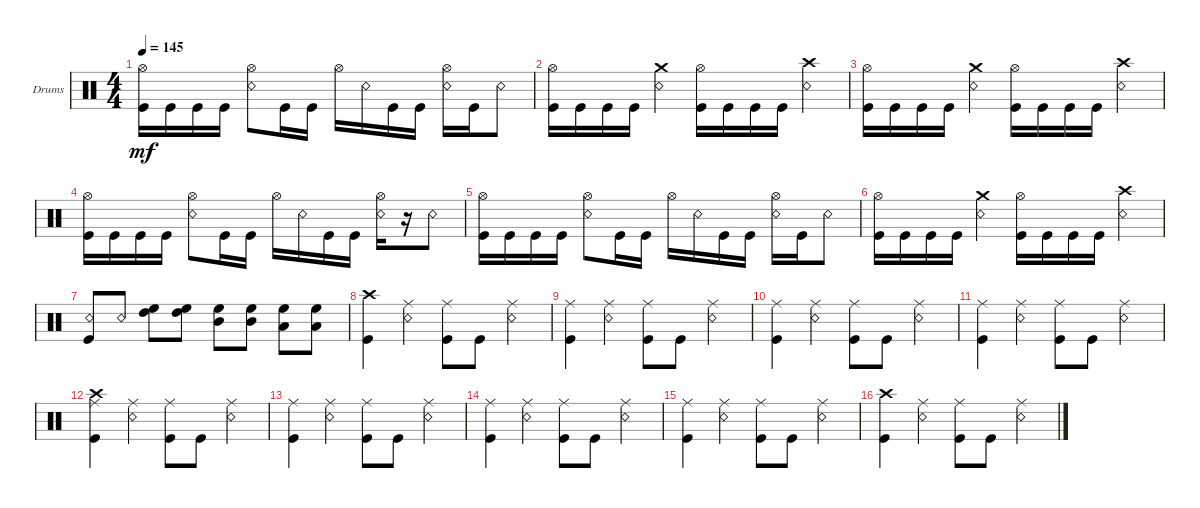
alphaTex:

\defaultSystemsLayout 4
\bracketExtendMode groupsimilarinstruments
\firstSystemTrackNameOrientation horizontal
\otherSystemsTrackNameOrientation horizontal
\track ("Drumkit" "Drums") {instrument percussion}
\staff {score}
\articulation defaults
\ts (4 4)
\tempo 145
\clef neutral
\ks c
("Kick (hit)" "Hi-Hat (open)").16{dy mf} "Kick (hit)".16 "Kick (hit)".16 "Kick (hit)".16 ("Hi-Hat (open)" "Snare (rim shot)").8 "Kick (hit)".16 "Kick (hit)".16 "Hi-Hat (open)".16 "Snare (rim shot)".16 "Kick (hit)".16 "Kick (hit)".16 ("Snare (rim shot)" "Hi-Hat (open)").16 "Kick (hit)".16 "Snare (rim shot)".8 |
("Kick (hit)" "Hi-Hat (open)").16 "Kick (hit)".16 "Kick (hit)".16 "Kick (hit)".16 ("Snare (rim shot)" "Crash medium (hit)").4 ("Kick (hit)" "Hi-Hat (open)").16 "Kick (hit)".16 "Kick (hit)".16 "Kick (hit)".16 ("Snare (rim shot)" "Crash high (hit)").4 |
("Kick (hit)" "Hi-Hat (open)").16 "Kick (hit)".16 "Kick (hit)".16 "Kick (hit)".16 ("Snare (rim shot)" "Crash medium (hit)").4 ("Kick (hit)" "Hi-Hat (open)").16 "Kick (hit)".16 "Kick (hit)".16 "Kick (hit)".16 ("Snare (rim shot)" "Crash high (hit)").4 |
("Kick (hit)" "Hi-Hat (open)").16 "Kick (hit)".16 "Kick (hit)".16 "Kick (hit)".16 ("Hi-Hat (open)" "Snare (rim shot)").8 "Kick (hit)".16 "Kick (hit)".16 "Hi-Hat (open)".16 "Snare (rim shot)".16 "Kick (hit)".16 "Kick (hit)".16 ("Snare (rim shot)" "Hi-Hat (open)").16 r.16 "Snare (rim shot)".8 |
("Kick (hit)" "Hi-Hat (open)").16 "Kick (hit)".16 "Kick (hit)".16 "Kick (hit)".16 ("Hi-Hat (open)" "Snare (rim shot)").8 "Kick (hit)".16 "Kick (hit)".16 "Hi-Hat (open)".16 "Snare (rim shot)".16 "Kick (hit)".16 "Kick (hit)".16 ("Snare (rim shot)" "Hi-Hat (open)").16 "Kick (hit)".16 "Snare (rim shot)".8 |
("Kick (hit)" "Hi-Hat (open)").16 "Kick (hit)".16 "Kick (hit)".16 "Kick (hit)".16 ("Snare (rim shot)" "Crash medium (hit)").4 ("Kick (hit)" "Hi-Hat (open)").16 "Kick (hit)".16 "Kick (hit)".16 "Kick (hit)".16 ("Snare (rim shot)" "Crash high (hit)").4 |
("Kick (hit)" "Snare (rim shot)").8 "Snare (rim shot)".8 ("High Floor Tom (hit)" "High Tom (hit)").8 ("High Floor Tom (hit)" "High Tom (hit)").8 ("High Floor Tom (hit)" "Mid Tom (hit)").8 ("High Floor Tom (hit)" "Mid Tom (hit)").8 ("High Floor Tom (hit)" "Low Tom (hit)").8 ("High Floor Tom (hit)" "Low Tom (hit)").8 |
("Kick (hit)" "Crash high (hit)").4 ("Ride (middle)" "Snare (rim shot)").4 ("Kick (hit)" "Ride (middle)").8 "Kick (hit)".8 ("Ride (middle)" "Snare (rim shot)").4 |
("Kick (hit)" "Ride (middle)").4 ("Ride (middle)" "Snare (rim shot)").4 ("Kick (hit)" "Ride (middle)").8 "Kick (hit)".8 ("Ride (middle)" "Snare (rim shot)").4 |
("Kick (hit)" "Ride (middle)").4 ("Ride (middle)" "Snare (rim shot)").4 ("Kick (hit)" "Ride (middle)").8 "Kick (hit)".8 ("Ride (middle)" "Snare (rim shot)").4 |
("Kick (hit)" "Ride (middle)").4 ("Ride (middle)" "Snare (rim shot)").4 ("Kick (hit)" "Ride (middle)").8 "Kick (hit)".8 ("Ride (middle)" "Snare (rim shot)").4 |
("Kick (hit)" "Ride (middle)" "Crash high (hit)").4 ("Ride (middle)" "Snare (rim shot)").4 ("Kick (hit)" "Ride (middle)").8 "Kick (hit)".8 ("Ride (middle)" "Snare (rim shot)").4 |
("Kick (hit)" "Ride (middle)").4 ("Ride (middle)" "Snare (rim shot)").4 ("Kick (hit)" "Ride (middle)").8 "Kick (hit)".8 ("Ride (middle)" "Snare (rim shot)").4 |
("Kick (hit)" "Ride (middle)").4 ("Ride (middle)" "Snare (rim shot)").4 ("Kick (hit)" "Ride (middle)").8 "Kick (hit)".8 ("Ride (middle)" "Snare (rim shot)").4 |
("Kick (hit)" "Ride (middle)").4 ("Ride (middle)" "Snare (rim shot)").4 ("Kick (hit)" "Ride (middle)").8 "Kick (hit)".8 ("Ride (middle)" "Snare (rim shot)").4 |
("Kick (hit)" "Crash high (hit)").4 ("Ride (middle)" "Snare (rim shot)").4 ("Kick (hit)" "Ride (middle)").8 "Kick (hit)".8 ("Ride (middle)" "Snare (rim shot)").4
